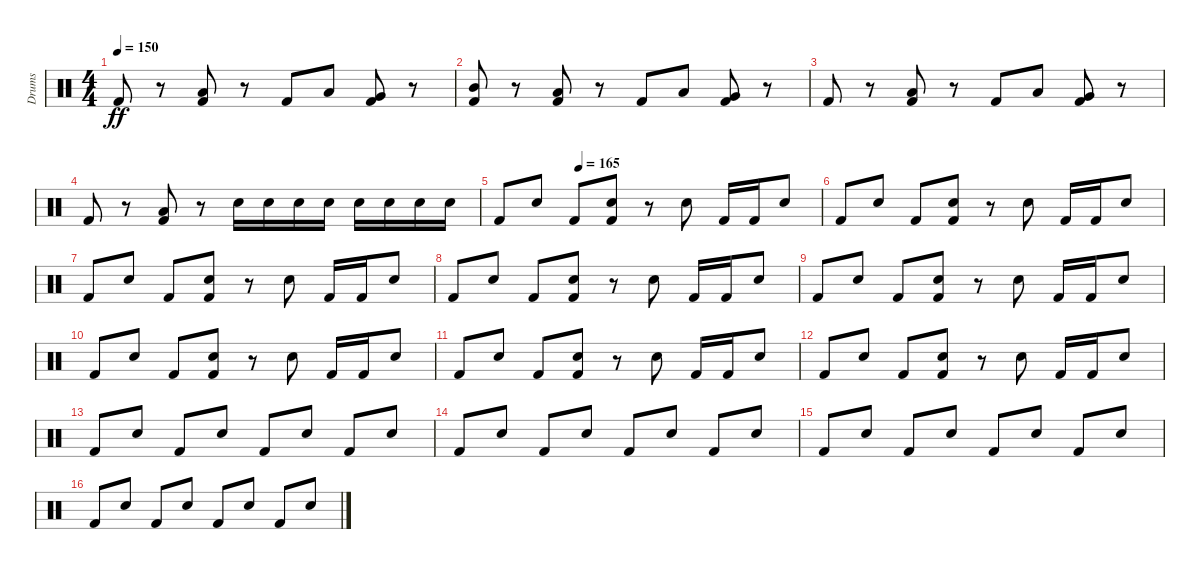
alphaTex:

\track ("Drums" "Drums") {instrument percussion}
\staff {score}
\articulation defaults
\ts (4 4)
\tempo 150
\clef neutral
\ks c "Kick (hit) 2".8{dy ff}
r.8 ("Kick (hit) 2" "Low Tom (hit)").8 r.8 "Kick (hit) 2".8 "Low Tom (hit)".8 ("Kick (hit) 2" "Very Low Tom (hit)").8 r.8 |
("Mid Tom (hit)" "Kick (hit) 2").8 r.8 ("Kick (hit) 2" "Low Tom (hit)").8 r.8 "Kick (hit) 2".8 "Low Tom (hit)".8 ("Kick (hit) 2" "Very Low Tom (hit)").8 r.8 |
"Kick (hit) 2".8 r.8 ("Low Tom (hit)" "Kick (hit) 2").8 r.8 "Kick (hit) 2".8 "Low Tom (hit)".8 ("Very Low Tom (hit)" "Kick (hit) 2").8 r.8 |
"Kick (hit) 2".8 r.8 ("Kick (hit) 2" "Low Tom (hit)").8 r.8 "Snare (hit) 2".16 "Snare (hit) 2".16 "Snare (hit) 2".16 "Snare (hit) 2".16 "Snare (hit) 2".16 "Snare (hit) 2".16 "Snare (hit) 2".16 "Snare (hit) 2".16 |
\tempo (165 0.25)
"Kick (hit) 2".8 "Snare (hit) 2".8 "Kick (hit) 2".8 ("Snare (hit) 2" "Kick (hit) 2").8 r.8 "Snare (hit) 2".8 "Kick (hit) 2".16 "Kick (hit) 2".16 "Snare (hit) 2".8 |
"Kick (hit) 2".8 "Snare (hit) 2".8 "Kick (hit) 2".8 ("Kick (hit) 2" "Snare (hit) 2").8 r.8 "Snare (hit) 2".8 "Kick (hit) 2".16 "Kick (hit) 2".16 "Snare (hit) 2".8 |
"Kick (hit) 2".8 "Snare (hit) 2".8 "Kick (hit) 2".8 ("Snare (hit) 2" "Kick (hit) 2").8 r.8 "Snare (hit) 2".8 "Kick (hit) 2".16 "Kick (hit) 2".16 "Snare (hit) 2".8 |
"Kick (hit) 2".8 "Snare (hit) 2".8 "Kick (hit) 2".8 ("Kick (hit) 2" "Snare (hit) 2").8 r.8 "Snare (hit) 2".8 "Kick (hit) 2".16 "Kick (hit) 2".16 "Snare (hit) 2".8 |
"Kick (hit) 2".8 "Snare (hit) 2".8 "Kick (hit) 2".8 ("Snare (hit) 2" "Kick (hit) 2").8 r.8 "Snare (hit) 2".8 "Kick (hit) 2".16 "Kick (hit) 2".16 "Snare (hit) 2".8 |
"Kick (hit) 2".8 "Snare (hit) 2".8 "Kick (hit) 2".8 ("Kick (hit) 2" "Snare (hit) 2").8 r.8 "Snare (hit) 2".8 "Kick (hit) 2".16 "Kick (hit) 2".16 "Snare (hit) 2".8 |
"Kick (hit) 2".8 "Snare (hit) 2".8 "Kick (hit) 2".8 ("Snare (hit) 2" "Kick (hit) 2").8 r.8 "Snare (hit) 2".8 "Kick (hit) 2".16 "Kick (hit) 2".16 "Snare (hit) 2".8 |
"Kick (hit) 2".8 "Snare (hit) 2".8 "Kick (hit) 2".8 ("Kick (hit) 2" "Snare (hit) 2").8 r.8 "Snare (hit) 2".8 "Kick (hit) 2".16 "Kick (hit) 2".16 "Snare (hit) 2".8 |
"Kick (hit) 2".8 "Snare (hit) 2".8 "Kick (hit) 2".8 "Snare (hit) 2".8 "Kick (hit) 2".8 "Snare (hit) 2".8 "Kick (hit) 2".8 "Snare (hit) 2".8 |
"Kick (hit) 2".8 "Snare (hit) 2".8 "Kick (hit) 2".8 "Snare (hit) 2".8 "Kick (hit) 2".8 "Snare (hit) 2".8 "Kick (hit) 2".8 "Snare (hit) 2".8 |
"Kick (hit) 2".8 "Snare (hit) 2".8 "Kick (hit) 2".8 "Snare (hit) 2".8 "Kick (hit) 2".8 "Snare (hit) 2".8 "Kick (hit) 2".8 "Snare (hit) 2".8 |
"Kick (hit) 2".8 "Snare (hit) 2".8 "Kick (hit) 2".8 "Snare (hit) 2".8 "Kick (hit) 2".8 "Snare (hit) 2".8 "Kick (hit) 2".8 "Snare (hit) 2".8
